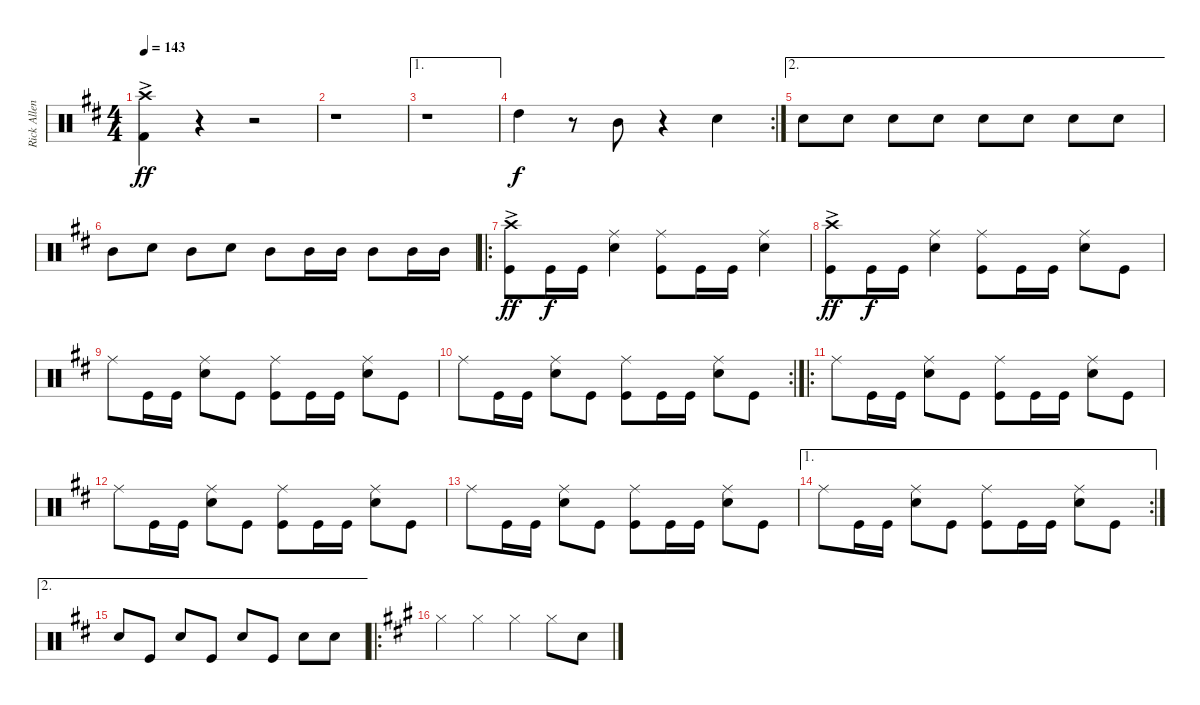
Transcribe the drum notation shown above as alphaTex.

\track ("Rick Allen" "Rick Allen") {instrument percussion}
\staff {score}
\articulation defaults
\ts (4 4)
\tempo 143
\clef neutral
\ks d
("Crash high (hit)"{ac} "Kick (hit) 2").4{dy ff} r.4 r.2 |
r.1 |
\ae 1
r.1 |
\rc 2 "High Tom (hit)".4{dy f}
r.8 "Mid Tom (hit)".8 r.4 "Snare (hit) 2".4 |
\ae 2 "Snare (hit) 2".8 "Snare (hit) 2".8 "Snare (hit) 2".8 "Snare (hit) 2".8 "Snare (hit) 2".8 "Snare (hit) 2".8 "Snare (hit) 2".8 "Snare (hit) 2".8
|
"Mid Tom (hit)".8 "Snare (hit) 2".8 "Mid Tom (hit)".8 "Snare (hit) 2".8 "Mid Tom (hit)".8 "Mid Tom (hit)".16 "Mid Tom (hit)".16 "Mid Tom (hit)".8 "Mid Tom (hit)".16 "Mid Tom (hit)".16 |
\ro
("Crash high (hit)"{ac} "Kick (hit)").8{dy ff} "Kick (hit)".16{dy f} "Kick (hit)".16 ("Ride (middle)" "Snare (hit) 2").4 ("Ride (middle)" "Kick (hit)").8 "Kick (hit)".16 "Kick (hit)".16 ("Ride (middle)" "Snare (hit) 2").4 |
("Crash high (hit)"{ac} "Kick (hit)").8{dy ff} "Kick (hit)".16{dy f} "Kick (hit)".16 ("Ride (middle)" "Snare (hit) 2").4 ("Ride (middle)" "Kick (hit)").8 "Kick (hit)".16 "Kick (hit)".16 ("Ride (middle)" "Snare (hit) 2").8 "Kick (hit)".8 |
"Ride (middle)".8 "Kick (hit)".16 "Kick (hit)".16 ("Ride (middle)" "Snare (hit) 2").8 "Kick (hit)".8 ("Ride (middle)" "Kick (hit)").8 "Kick (hit)".16 "Kick (hit)".16 ("Ride (middle)" "Snare (hit) 2").8 "Kick (hit)".8 |
\rc 2 "Ride (middle)".8 "Kick (hit)".16 "Kick (hit)".16
("Ride (middle)" "Snare (hit) 2").8 "Kick (hit)".8 ("Ride (middle)" "Kick (hit)").8 "Kick (hit)".16 "Kick (hit)".16 ("Ride (middle)" "Snare (hit) 2").8 "Kick (hit)".8 |
\ro "Ride (middle)".8 "Kick (hit)".16 "Kick (hit)".16
("Ride (middle)" "Snare (hit) 2").8 "Kick (hit)".8 ("Ride (middle)" "Kick (hit)").8 "Kick (hit)".16 "Kick (hit)".16 ("Ride (middle)" "Snare (hit) 2").8 "Kick (hit)".8 |
"Ride (middle)".8 "Kick (hit)".16 "Kick (hit)".16 ("Ride (middle)" "Snare (hit) 2").8 "Kick (hit)".8 ("Ride (middle)" "Kick (hit)").8 "Kick (hit)".16 "Kick (hit)".16 ("Ride (middle)" "Snare (hit) 2").8 "Kick (hit)".8 |
"Ride (middle)".8 "Kick (hit)".16 "Kick (hit)".16 ("Ride (middle)" "Snare (hit) 2").8 "Kick (hit)".8 ("Ride (middle)" "Kick (hit)").8 "Kick (hit)".16 "Kick (hit)".16 ("Ride (middle)" "Snare (hit) 2").8 "Kick (hit)".8 |
\ae 1
\rc 2 "Ride (middle)".8 "Kick (hit)".16 "Kick (hit)".16
("Ride (middle)" "Snare (hit) 2").8 "Kick (hit)".8 ("Ride (middle)" "Kick (hit)").8 "Kick (hit)".16 "Kick (hit)".16 ("Ride (middle)" "Snare (hit) 2").8 "Kick (hit)".8 |
\ae 2 "Snare (hit) 2".8 "Kick (hit)".8 "Snare (hit) 2".8 "Kick (hit)".8 "Snare (hit) 2".8 "Kick (hit)".8 "Snare (hit) 2".8 "Snare (hit) 2".8
|
\ro
\ks a "Hi-Hat (closed)".4 "Hi-Hat (closed)".4 "Hi-Hat (closed)".4 "Hi-Hat (closed)".8 "Snare (hit) 2".8
